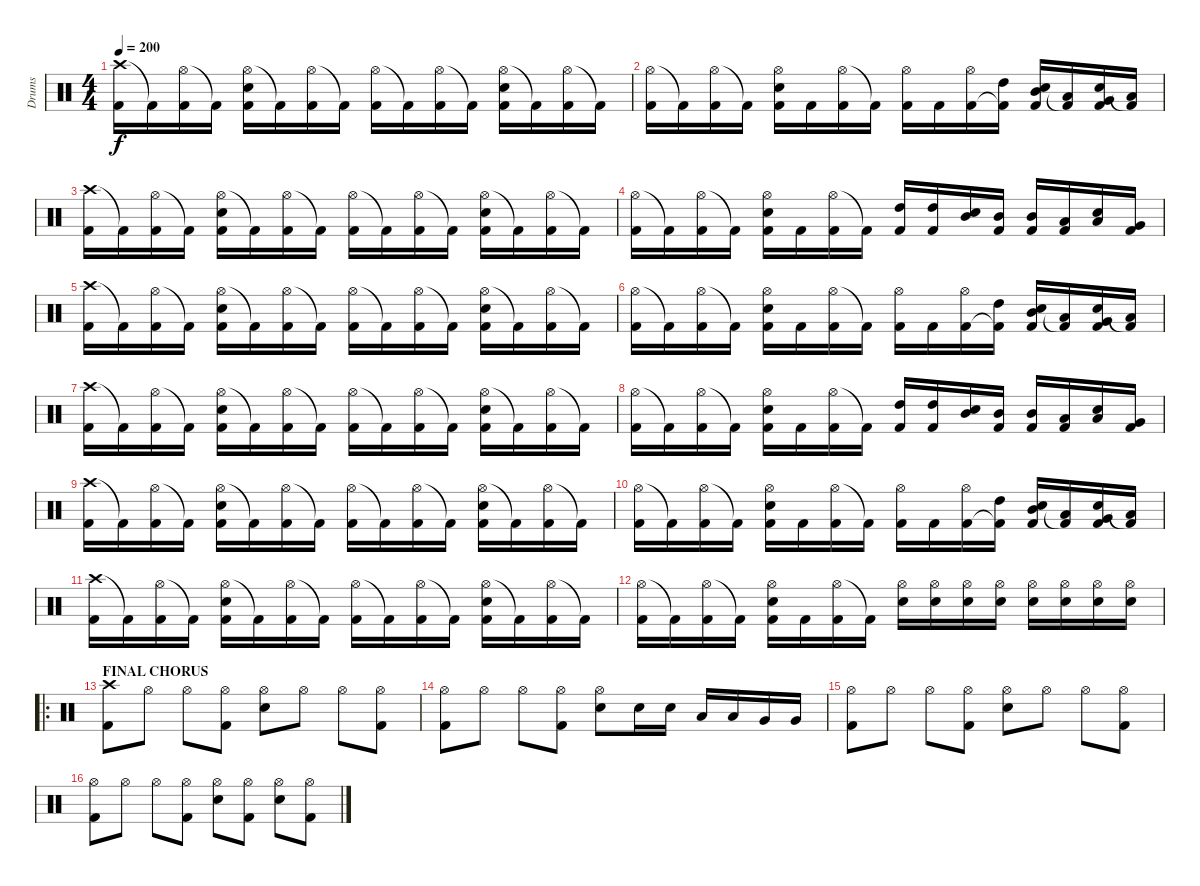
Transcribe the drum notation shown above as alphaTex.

\track ("Drums" "Drums") {instrument percussion}
\staff {score}
\articulation defaults
\ts (4 4)
\tempo 200
\clef neutral
\ks c
("Crash high (hit)" "Kick (hit) 2").16{dy f} "Kick (hit) 2"{t}.16 ("Hi-Hat (open)" "Kick (hit) 2").16 "Kick (hit) 2"{t}.16 ("Hi-Hat (open)" "Electric Snare (hit)" "Kick (hit) 2").16 "Kick (hit) 2"{t}.16 ("Hi-Hat (open)" "Kick (hit) 2").16 "Kick (hit) 2"{t}.16 ("Hi-Hat (open)" "Kick (hit) 2").16 "Kick (hit) 2"{t}.16 ("Hi-Hat (open)" "Kick (hit) 2").16 "Kick (hit) 2"{t}.16 ("Hi-Hat (open)" "Electric Snare (hit)" "Kick (hit) 2").16 "Kick (hit) 2"{t}.16 ("Hi-Hat (open)" "Kick (hit) 2").16 "Kick (hit) 2"{t}.16 |
("Hi-Hat (open)" "Kick (hit) 2").16 "Kick (hit) 2"{t}.16 ("Hi-Hat (open)" "Kick (hit) 2").16 "Kick (hit) 2"{t}.16 ("Hi-Hat (open)" "Electric Snare (hit)" "Kick (hit) 2").16 "Kick (hit) 2".16 ("Hi-Hat (open)" "Kick (hit) 2").16 "Kick (hit) 2"{t}.16 ("Hi-Hat (open)" "Kick (hit) 2").16 "Kick (hit) 2".16 ("Hi-Hat (open)" "Kick (hit) 2").16 ("High Tom (hit)" "Kick (hit) 2"{t}).16 ("Mid Tom (hit)" "Electric Snare (hit)" "Kick (hit) 2").16 ("Low Tom (hit)" "Kick (hit) 2"{t}).16 ("Very Low Tom (hit)" "Electric Snare (hit)" "Kick (hit) 2").16 ("Low Floor Tom (hit)" "Kick (hit) 2"{t}).16 |
("Crash high (hit)" "Kick (hit) 2").16 "Kick (hit) 2"{t}.16 ("Hi-Hat (open)" "Kick (hit) 2").16 "Kick (hit) 2"{t}.16 ("Hi-Hat (open)" "Electric Snare (hit)" "Kick (hit) 2").16 "Kick (hit) 2"{t}.16 ("Hi-Hat (open)" "Kick (hit) 2").16 "Kick (hit) 2"{t}.16 ("Hi-Hat (open)" "Kick (hit) 2").16 "Kick (hit) 2"{t}.16 ("Hi-Hat (open)" "Kick (hit) 2").16 "Kick (hit) 2"{t}.16 ("Hi-Hat (open)" "Electric Snare (hit)" "Kick (hit) 2").16 "Kick (hit) 2"{t}.16 ("Hi-Hat (open)" "Kick (hit) 2").16 "Kick (hit) 2"{t}.16 |
("Hi-Hat (open)" "Kick (hit) 2").16 "Kick (hit) 2"{t}.16 ("Hi-Hat (open)" "Kick (hit) 2").16 "Kick (hit) 2"{t}.16 ("Hi-Hat (open)" "Electric Snare (hit)" "Kick (hit) 2").16 "Kick (hit) 2".16 ("Hi-Hat (open)" "Kick (hit) 2").16 "Kick (hit) 2"{t}.16 ("High Tom (hit)" "Kick (hit) 2").16 ("High Tom (hit)" "Kick (hit) 2").16 ("Mid Tom (hit)" "Electric Snare (hit)").16 ("Mid Tom (hit)" "Kick (hit) 2").16 ("Mid Tom (hit)" "Kick (hit) 2").16 ("Low Tom (hit)" "Kick (hit) 2").16 ("Low Tom (hit)" "Electric Snare (hit)").16 ("Very Low Tom (hit)" "Kick (hit) 2").16 |
("Crash high (hit)" "Kick (hit) 2").16 "Kick (hit) 2"{t}.16 ("Hi-Hat (open)" "Kick (hit) 2").16 "Kick (hit) 2"{t}.16 ("Hi-Hat (open)" "Electric Snare (hit)" "Kick (hit) 2").16 "Kick (hit) 2"{t}.16 ("Hi-Hat (open)" "Kick (hit) 2").16 "Kick (hit) 2"{t}.16 ("Hi-Hat (open)" "Kick (hit) 2").16 "Kick (hit) 2"{t}.16 ("Hi-Hat (open)" "Kick (hit) 2").16 "Kick (hit) 2"{t}.16 ("Hi-Hat (open)" "Electric Snare (hit)" "Kick (hit) 2").16 "Kick (hit) 2"{t}.16 ("Hi-Hat (open)" "Kick (hit) 2").16 "Kick (hit) 2"{t}.16 |
("Hi-Hat (open)" "Kick (hit) 2").16 "Kick (hit) 2"{t}.16 ("Hi-Hat (open)" "Kick (hit) 2").16 "Kick (hit) 2"{t}.16 ("Hi-Hat (open)" "Electric Snare (hit)" "Kick (hit) 2").16 "Kick (hit) 2".16 ("Hi-Hat (open)" "Kick (hit) 2").16 "Kick (hit) 2"{t}.16 ("Hi-Hat (open)" "Kick (hit) 2").16 "Kick (hit) 2".16 ("Hi-Hat (open)" "Kick (hit) 2").16 ("High Tom (hit)" "Kick (hit) 2"{t}).16 ("Mid Tom (hit)" "Electric Snare (hit)" "Kick (hit) 2").16 ("Low Tom (hit)" "Kick (hit) 2"{t}).16 ("Very Low Tom (hit)" "Electric Snare (hit)" "Kick (hit) 2").16 ("Low Floor Tom (hit)" "Kick (hit) 2"{t}).16 |
("Crash high (hit)" "Kick (hit) 2").16 "Kick (hit) 2"{t}.16 ("Hi-Hat (open)" "Kick (hit) 2").16 "Kick (hit) 2"{t}.16 ("Hi-Hat (open)" "Electric Snare (hit)" "Kick (hit) 2").16 "Kick (hit) 2"{t}.16 ("Hi-Hat (open)" "Kick (hit) 2").16 "Kick (hit) 2"{t}.16 ("Hi-Hat (open)" "Kick (hit) 2").16 "Kick (hit) 2"{t}.16 ("Hi-Hat (open)" "Kick (hit) 2").16 "Kick (hit) 2"{t}.16 ("Hi-Hat (open)" "Electric Snare (hit)" "Kick (hit) 2").16 "Kick (hit) 2"{t}.16 ("Hi-Hat (open)" "Kick (hit) 2").16 "Kick (hit) 2"{t}.16 |
("Hi-Hat (open)" "Kick (hit) 2").16 "Kick (hit) 2"{t}.16 ("Hi-Hat (open)" "Kick (hit) 2").16 "Kick (hit) 2"{t}.16 ("Hi-Hat (open)" "Electric Snare (hit)" "Kick (hit) 2").16 "Kick (hit) 2".16 ("Hi-Hat (open)" "Kick (hit) 2").16 "Kick (hit) 2"{t}.16 ("High Tom (hit)" "Kick (hit) 2").16 ("High Tom (hit)" "Kick (hit) 2").16 ("Mid Tom (hit)" "Electric Snare (hit)").16 ("Mid Tom (hit)" "Kick (hit) 2").16 ("Mid Tom (hit)" "Kick (hit) 2").16 ("Low Tom (hit)" "Kick (hit) 2").16 ("Low Tom (hit)" "Electric Snare (hit)").16 ("Very Low Tom (hit)" "Kick (hit) 2").16 |
("Crash high (hit)" "Kick (hit) 2").16 "Kick (hit) 2"{t}.16 ("Hi-Hat (open)" "Kick (hit) 2").16 "Kick (hit) 2"{t}.16 ("Hi-Hat (open)" "Electric Snare (hit)" "Kick (hit) 2").16 "Kick (hit) 2"{t}.16 ("Hi-Hat (open)" "Kick (hit) 2").16 "Kick (hit) 2"{t}.16 ("Hi-Hat (open)" "Kick (hit) 2").16 "Kick (hit) 2"{t}.16 ("Hi-Hat (open)" "Kick (hit) 2").16 "Kick (hit) 2"{t}.16 ("Hi-Hat (open)" "Electric Snare (hit)" "Kick (hit) 2").16 "Kick (hit) 2"{t}.16 ("Hi-Hat (open)" "Kick (hit) 2").16 "Kick (hit) 2"{t}.16 |
("Hi-Hat (open)" "Kick (hit) 2").16 "Kick (hit) 2"{t}.16 ("Hi-Hat (open)" "Kick (hit) 2").16 "Kick (hit) 2"{t}.16 ("Hi-Hat (open)" "Electric Snare (hit)" "Kick (hit) 2").16 "Kick (hit) 2".16 ("Hi-Hat (open)" "Kick (hit) 2").16 "Kick (hit) 2"{t}.16 ("Hi-Hat (open)" "Kick (hit) 2").16 "Kick (hit) 2".16 ("Hi-Hat (open)" "Kick (hit) 2").16 ("High Tom (hit)" "Kick (hit) 2"{t}).16 ("Mid Tom (hit)" "Electric Snare (hit)" "Kick (hit) 2").16 ("Low Tom (hit)" "Kick (hit) 2"{t}).16 ("Very Low Tom (hit)" "Electric Snare (hit)" "Kick (hit) 2").16 ("Low Floor Tom (hit)" "Kick (hit) 2"{t}).16 |
("Crash high (hit)" "Kick (hit) 2").16 "Kick (hit) 2"{t}.16 ("Hi-Hat (open)" "Kick (hit) 2").16 "Kick (hit) 2"{t}.16 ("Hi-Hat (open)" "Electric Snare (hit)" "Kick (hit) 2").16 "Kick (hit) 2"{t}.16 ("Hi-Hat (open)" "Kick (hit) 2").16 "Kick (hit) 2"{t}.16 ("Hi-Hat (open)" "Kick (hit) 2").16 "Kick (hit) 2"{t}.16 ("Hi-Hat (open)" "Kick (hit) 2").16 "Kick (hit) 2"{t}.16 ("Hi-Hat (open)" "Electric Snare (hit)" "Kick (hit) 2").16 "Kick (hit) 2"{t}.16 ("Hi-Hat (open)" "Kick (hit) 2").16 "Kick (hit) 2"{t}.16 |
("Hi-Hat (open)" "Kick (hit) 2").16 "Kick (hit) 2"{t}.16 ("Hi-Hat (open)" "Kick (hit) 2").16 "Kick (hit) 2"{t}.16 ("Hi-Hat (open)" "Electric Snare (hit)" "Kick (hit) 2").16 "Kick (hit) 2".16 ("Hi-Hat (open)" "Kick (hit) 2").16 "Kick (hit) 2"{t}.16 ("Hi-Hat (open)" "Electric Snare (hit)").16 ("Hi-Hat (open)" "Electric Snare (hit)").16 ("Hi-Hat (open)" "Electric Snare (hit)").16 ("Hi-Hat (open)" "Electric Snare (hit)").16 ("Hi-Hat (open)" "Electric Snare (hit)").16 ("Hi-Hat (open)" "Electric Snare (hit)").16 ("Hi-Hat (open)" "Electric Snare (hit)").16 ("Hi-Hat (open)" "Electric Snare (hit)").16 |
\ro
\section ("" "FINAL CHORUS")
("Crash high (hit)" "Kick (hit) 2").8 "Hi-Hat (open)".8 "Hi-Hat (open)".8 ("Hi-Hat (open)" "Kick (hit) 2").8 ("Hi-Hat (open)" "Electric Snare (hit)").8 "Hi-Hat (open)".8 "Hi-Hat (open)".8 ("Hi-Hat (open)" "Kick (hit) 2").8 |
("Hi-Hat (open)" "Kick (hit) 2").8 "Hi-Hat (open)".8 "Hi-Hat (open)".8 ("Hi-Hat (open)" "Kick (hit) 2").8 ("Hi-Hat (open)" "Electric Snare (hit)").8 "Electric Snare (hit)".16 "Electric Snare (hit)".16 "Low Tom (hit)".16 "Low Tom (hit)".16 "Very Low Tom (hit)".16 "Very Low Tom (hit)".16 |
("Hi-Hat (open)" "Kick (hit) 2").8 "Hi-Hat (open)".8 "Hi-Hat (open)".8 ("Hi-Hat (open)" "Kick (hit) 2").8 ("Hi-Hat (open)" "Electric Snare (hit)").8 "Hi-Hat (open)".8 "Hi-Hat (open)".8 ("Hi-Hat (open)" "Kick (hit) 2").8 |
("Hi-Hat (open)" "Kick (hit) 2").8 "Hi-Hat (open)".8 "Hi-Hat (open)".8 ("Hi-Hat (open)" "Kick (hit) 2").8 ("Hi-Hat (open)" "Electric Snare (hit)").8 ("Hi-Hat (open)" "Kick (hit) 2").8 ("Hi-Hat (open)" "Electric Snare (hit)").8 ("Hi-Hat (open)" "Kick (hit) 2").8
